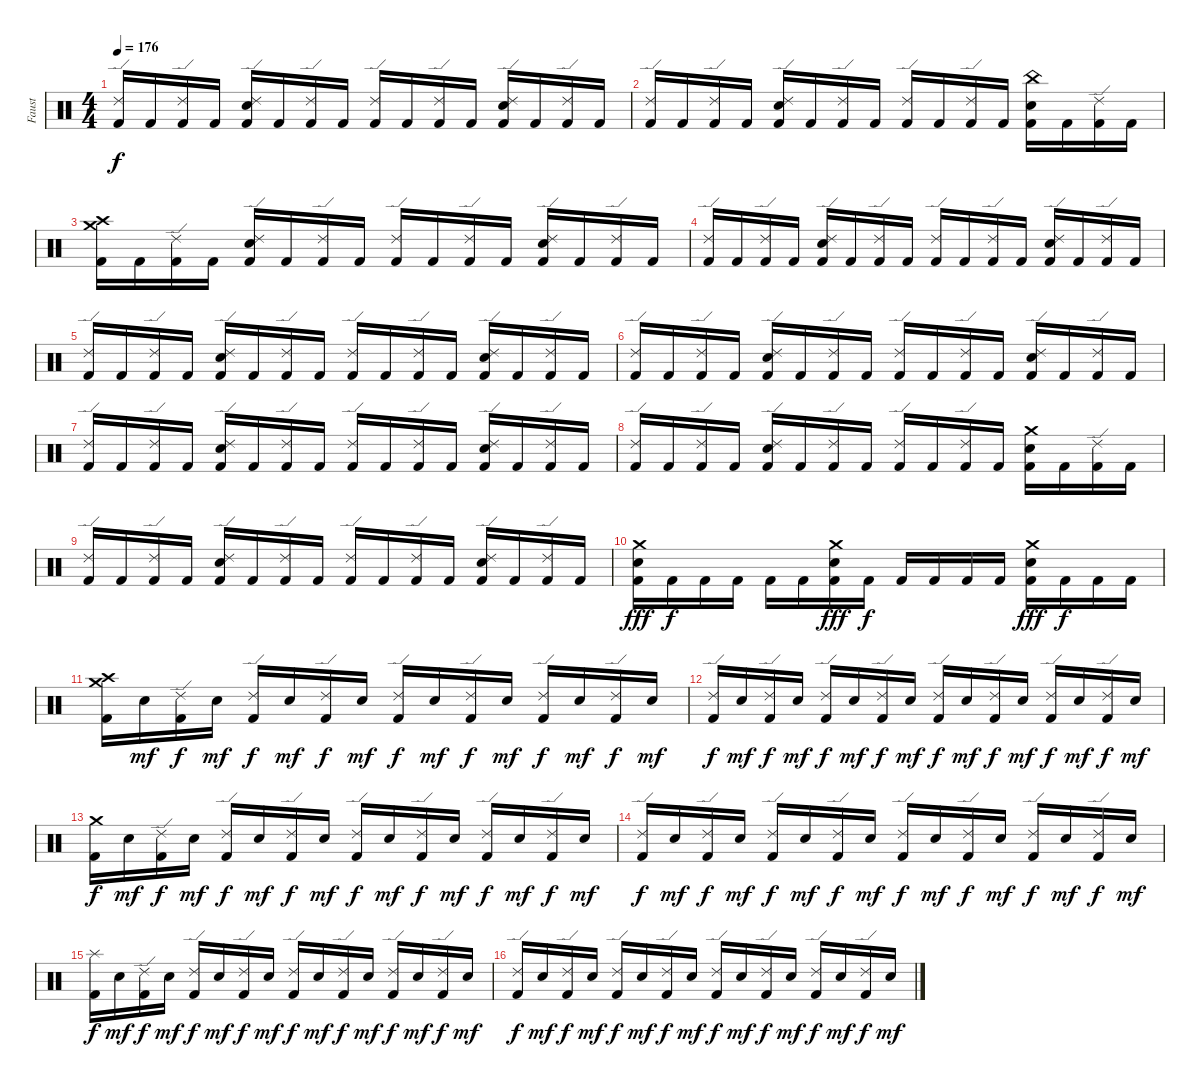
\track ("Faust" "Faust") {instrument percussion}
\staff {score}
\articulation defaults
\ts (4 4)
\tempo 176
\clef neutral
\ks c
("Ride (edge) 2" "Kick (hit) 2").16{dy f} "Kick (hit) 2".16 ("Ride (edge) 2" "Kick (hit) 2").16 "Kick (hit) 2".16 ("Ride (edge) 2" "Electric Snare (hit)" "Kick (hit) 2").16 "Kick (hit) 2".16 ("Ride (edge) 2" "Kick (hit) 2").16 "Kick (hit) 2".16 ("Ride (edge) 2" "Kick (hit) 2").16 "Kick (hit) 2".16 ("Ride (edge) 2" "Kick (hit) 2").16 "Kick (hit) 2".16 ("Ride (edge) 2" "Electric Snare (hit)" "Kick (hit) 2").16 "Kick (hit) 2".16 ("Ride (edge) 2" "Kick (hit) 2").16 "Kick (hit) 2".16 |
("Ride (edge) 2" "Kick (hit) 2").16 "Kick (hit) 2".16 ("Ride (edge) 2" "Kick (hit) 2").16 "Kick (hit) 2".16 ("Ride (edge) 2" "Electric Snare (hit)" "Kick (hit) 2").16 "Kick (hit) 2".16 ("Ride (edge) 2" "Kick (hit) 2").16 "Kick (hit) 2".16 ("Ride (edge) 2" "Kick (hit) 2").16 "Kick (hit) 2".16 ("Ride (edge) 2" "Kick (hit) 2").16 "Kick (hit) 2".16 ("China (hit)" "Electric Snare (hit)" "Kick (hit) 2").16 "Kick (hit) 2".16 ("Ride (edge) 2" "Kick (hit) 2").16 "Kick (hit) 2".16 |
("Crash high (hit)" "Crash medium (hit)" "Kick (hit) 2").16 "Kick (hit) 2".16 ("Ride (edge) 2" "Kick (hit) 2").16 "Kick (hit) 2".16 ("Ride (edge) 2" "Electric Snare (hit)" "Kick (hit) 2").16 "Kick (hit) 2".16 ("Ride (edge) 2" "Kick (hit) 2").16 "Kick (hit) 2".16 ("Ride (edge) 2" "Kick (hit) 2").16 "Kick (hit) 2".16 ("Ride (edge) 2" "Kick (hit) 2").16 "Kick (hit) 2".16 ("Ride (edge) 2" "Electric Snare (hit)" "Kick (hit) 2").16 "Kick (hit) 2".16 ("Ride (edge) 2" "Kick (hit) 2").16 "Kick (hit) 2".16 |
("Ride (edge) 2" "Kick (hit) 2").16 "Kick (hit) 2".16 ("Ride (edge) 2" "Kick (hit) 2").16 "Kick (hit) 2".16 ("Ride (edge) 2" "Electric Snare (hit)" "Kick (hit) 2").16 "Kick (hit) 2".16 ("Ride (edge) 2" "Kick (hit) 2").16 "Kick (hit) 2".16 ("Ride (edge) 2" "Kick (hit) 2").16 "Kick (hit) 2".16 ("Ride (edge) 2" "Kick (hit) 2").16 "Kick (hit) 2".16 ("Ride (edge) 2" "Electric Snare (hit)" "Kick (hit) 2").16 "Kick (hit) 2".16 ("Ride (edge) 2" "Kick (hit) 2").16 "Kick (hit) 2".16 |
("Ride (edge) 2" "Kick (hit) 2").16 "Kick (hit) 2".16 ("Ride (edge) 2" "Kick (hit) 2").16 "Kick (hit) 2".16 ("Ride (edge) 2" "Electric Snare (hit)" "Kick (hit) 2").16 "Kick (hit) 2".16 ("Ride (edge) 2" "Kick (hit) 2").16 "Kick (hit) 2".16 ("Ride (edge) 2" "Kick (hit) 2").16 "Kick (hit) 2".16 ("Ride (edge) 2" "Kick (hit) 2").16 "Kick (hit) 2".16 ("Ride (edge) 2" "Electric Snare (hit)" "Kick (hit) 2").16 "Kick (hit) 2".16 ("Ride (edge) 2" "Kick (hit) 2").16 "Kick (hit) 2".16 |
("Ride (edge) 2" "Kick (hit) 2").16 "Kick (hit) 2".16 ("Ride (edge) 2" "Kick (hit) 2").16 "Kick (hit) 2".16 ("Ride (edge) 2" "Electric Snare (hit)" "Kick (hit) 2").16 "Kick (hit) 2".16 ("Ride (edge) 2" "Kick (hit) 2").16 "Kick (hit) 2".16 ("Ride (edge) 2" "Kick (hit) 2").16 "Kick (hit) 2".16 ("Ride (edge) 2" "Kick (hit) 2").16 "Kick (hit) 2".16 ("Ride (edge) 2" "Electric Snare (hit)" "Kick (hit) 2").16 "Kick (hit) 2".16 ("Ride (edge) 2" "Kick (hit) 2").16 "Kick (hit) 2".16 |
("Ride (edge) 2" "Kick (hit) 2").16 "Kick (hit) 2".16 ("Ride (edge) 2" "Kick (hit) 2").16 "Kick (hit) 2".16 ("Ride (edge) 2" "Electric Snare (hit)" "Kick (hit) 2").16 "Kick (hit) 2".16 ("Ride (edge) 2" "Kick (hit) 2").16 "Kick (hit) 2".16 ("Ride (edge) 2" "Kick (hit) 2").16 "Kick (hit) 2".16 ("Ride (edge) 2" "Kick (hit) 2").16 "Kick (hit) 2".16 ("Ride (edge) 2" "Electric Snare (hit)" "Kick (hit) 2").16 "Kick (hit) 2".16 ("Ride (edge) 2" "Kick (hit) 2").16 "Kick (hit) 2".16 |
("Ride (edge) 2" "Kick (hit) 2").16 "Kick (hit) 2".16 ("Ride (edge) 2" "Kick (hit) 2").16 "Kick (hit) 2".16 ("Ride (edge) 2" "Electric Snare (hit)" "Kick (hit) 2").16 "Kick (hit) 2".16 ("Ride (edge) 2" "Kick (hit) 2").16 "Kick (hit) 2".16 ("Ride (edge) 2" "Kick (hit) 2").16 "Kick (hit) 2".16 ("Ride (edge) 2" "Kick (hit) 2").16 "Kick (hit) 2".16 ("Crash medium (hit)" "Electric Snare (hit)" "Kick (hit) 2").16 "Kick (hit) 2".16 ("Ride (edge) 2" "Kick (hit) 2").16 "Kick (hit) 2".16 |
("Ride (edge) 2" "Kick (hit) 2").16 "Kick (hit) 2".16 ("Ride (edge) 2" "Kick (hit) 2").16 "Kick (hit) 2".16 ("Ride (edge) 2" "Electric Snare (hit)" "Kick (hit) 2").16 "Kick (hit) 2".16 ("Ride (edge) 2" "Kick (hit) 2").16 "Kick (hit) 2".16 ("Ride (edge) 2" "Kick (hit) 2").16 "Kick (hit) 2".16 ("Ride (edge) 2" "Kick (hit) 2").16 "Kick (hit) 2".16 ("Ride (edge) 2" "Electric Snare (hit)" "Kick (hit) 2").16 "Kick (hit) 2".16 ("Ride (edge) 2" "Kick (hit) 2").16 "Kick (hit) 2".16 |
("Crash medium (hit)" "Electric Snare (hit)" "Kick (hit) 2").16{dy fff} "Kick (hit) 2".16{dy f} "Kick (hit) 2".16 "Kick (hit) 2".16 "Kick (hit) 2".16 "Kick (hit) 2".16 ("Crash medium (hit)" "Electric Snare (hit)" "Kick (hit) 2").16{dy fff} "Kick (hit) 2".16{dy f} "Kick (hit) 2".16 "Kick (hit) 2".16 "Kick (hit) 2".16 "Kick (hit) 2".16 ("Crash medium (hit)" "Electric Snare (hit)" "Kick (hit) 2").16{dy fff} "Kick (hit) 2".16{dy f} "Kick (hit) 2".16 "Kick (hit) 2".16 |
("Crash high (hit)" "Crash medium (hit)" "Kick (hit) 2").16 "Electric Snare (hit)".16{dy mf} ("Ride (edge) 2" "Kick (hit) 2").16{dy f} "Electric Snare (hit)".16{dy mf} ("Ride (edge) 2" "Kick (hit) 2").16{dy f} "Electric Snare (hit)".16{dy mf} ("Ride (edge) 2" "Kick (hit) 2").16{dy f} "Electric Snare (hit)".16{dy mf} ("Ride (edge) 2" "Kick (hit) 2").16{dy f} "Electric Snare (hit)".16{dy mf} ("Ride (edge) 2" "Kick (hit) 2").16{dy f} "Electric Snare (hit)".16{dy mf} ("Ride (edge) 2" "Kick (hit) 2").16{dy f} "Electric Snare (hit)".16{dy mf} ("Ride (edge) 2" "Kick (hit) 2").16{dy f} "Electric Snare (hit)".16{dy mf} |
("Ride (edge) 2" "Kick (hit) 2").16{dy f} "Electric Snare (hit)".16{dy mf} ("Ride (edge) 2" "Kick (hit) 2").16{dy f} "Electric Snare (hit)".16{dy mf} ("Ride (edge) 2" "Kick (hit) 2").16{dy f} "Electric Snare (hit)".16{dy mf} ("Ride (edge) 2" "Kick (hit) 2").16{dy f} "Electric Snare (hit)".16{dy mf} ("Ride (edge) 2" "Kick (hit) 2").16{dy f} "Electric Snare (hit)".16{dy mf} ("Ride (edge) 2" "Kick (hit) 2").16{dy f} "Electric Snare (hit)".16{dy mf} ("Ride (edge) 2" "Kick (hit) 2").16{dy f} "Electric Snare (hit)".16{dy mf} ("Ride (edge) 2" "Kick (hit) 2").16{dy f} "Electric Snare (hit)".16{dy mf} |
("Crash medium (hit)" "Kick (hit) 2").16{dy f} "Electric Snare (hit)".16{dy mf} ("Ride (edge) 2" "Kick (hit) 2").16{dy f} "Electric Snare (hit)".16{dy mf} ("Ride (edge) 2" "Kick (hit) 2").16{dy f} "Electric Snare (hit)".16{dy mf} ("Ride (edge) 2" "Kick (hit) 2").16{dy f} "Electric Snare (hit)".16{dy mf} ("Ride (edge) 2" "Kick (hit) 2").16{dy f} "Electric Snare (hit)".16{dy mf} ("Ride (edge) 2" "Kick (hit) 2").16{dy f} "Electric Snare (hit)".16{dy mf} ("Ride (edge) 2" "Kick (hit) 2").16{dy f} "Electric Snare (hit)".16{dy mf} ("Ride (edge) 2" "Kick (hit) 2").16{dy f} "Electric Snare (hit)".16{dy mf} |
("Ride (edge) 2" "Kick (hit) 2").16{dy f} "Electric Snare (hit)".16{dy mf} ("Ride (edge) 2" "Kick (hit) 2").16{dy f} "Electric Snare (hit)".16{dy mf} ("Ride (edge) 2" "Kick (hit) 2").16{dy f} "Electric Snare (hit)".16{dy mf} ("Ride (edge) 2" "Kick (hit) 2").16{dy f} "Electric Snare (hit)".16{dy mf} ("Ride (edge) 2" "Kick (hit) 2").16{dy f} "Electric Snare (hit)".16{dy mf} ("Ride (edge) 2" "Kick (hit) 2").16{dy f} "Electric Snare (hit)".16{dy mf} ("Ride (edge) 2" "Kick (hit) 2").16{dy f} "Electric Snare (hit)".16{dy mf} ("Ride (edge) 2" "Kick (hit) 2").16{dy f} "Electric Snare (hit)".16{dy mf} |
("Splash (hit)" "Kick (hit) 2").16{dy f} "Electric Snare (hit)".16{dy mf} ("Ride (edge) 2" "Kick (hit) 2").16{dy f} "Electric Snare (hit)".16{dy mf} ("Ride (edge) 2" "Kick (hit) 2").16{dy f} "Electric Snare (hit)".16{dy mf} ("Ride (edge) 2" "Kick (hit) 2").16{dy f} "Electric Snare (hit)".16{dy mf} ("Ride (edge) 2" "Kick (hit) 2").16{dy f} "Electric Snare (hit)".16{dy mf} ("Ride (edge) 2" "Kick (hit) 2").16{dy f} "Electric Snare (hit)".16{dy mf} ("Ride (edge) 2" "Kick (hit) 2").16{dy f} "Electric Snare (hit)".16{dy mf} ("Ride (edge) 2" "Kick (hit) 2").16{dy f} "Electric Snare (hit)".16{dy mf} |
("Ride (edge) 2" "Kick (hit) 2").16{dy f} "Electric Snare (hit)".16{dy mf} ("Ride (edge) 2" "Kick (hit) 2").16{dy f} "Electric Snare (hit)".16{dy mf} ("Ride (edge) 2" "Kick (hit) 2").16{dy f} "Electric Snare (hit)".16{dy mf} ("Ride (edge) 2" "Kick (hit) 2").16{dy f} "Electric Snare (hit)".16{dy mf} ("Ride (edge) 2" "Kick (hit) 2").16{dy f} "Electric Snare (hit)".16{dy mf} ("Ride (edge) 2" "Kick (hit) 2").16{dy f} "Electric Snare (hit)".16{dy mf} ("Ride (edge) 2" "Kick (hit) 2").16{dy f} "Electric Snare (hit)".16{dy mf} ("Ride (edge) 2" "Kick (hit) 2").16{dy f} "Electric Snare (hit)".16{dy mf}
